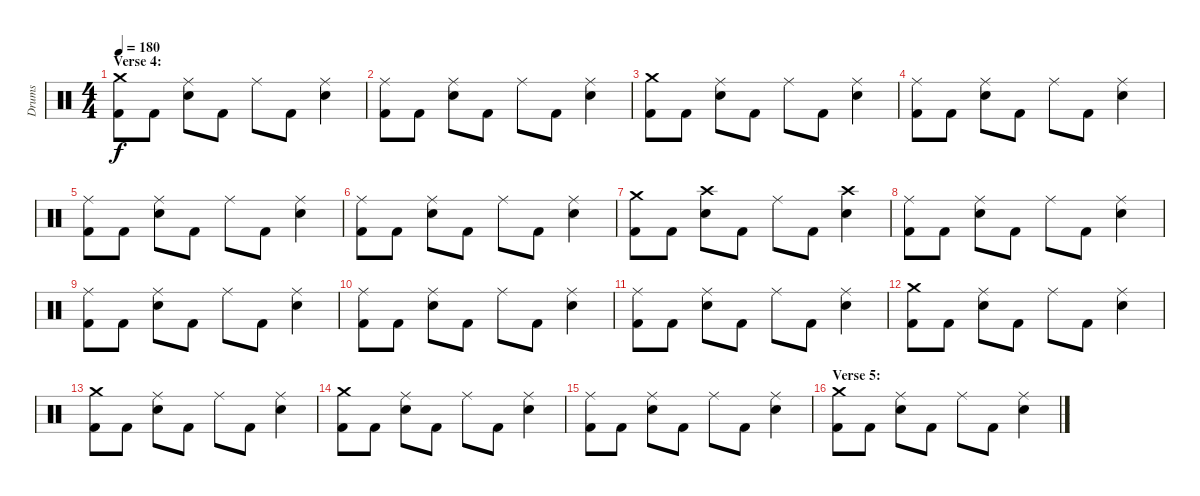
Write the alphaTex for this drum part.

\track ("Drums" "Drums") {instrument percussion}
\staff {score}
\articulation defaults
\ts (4 4)
\section ("" "Verse 4:")
\tempo 180
\clef neutral
\ks c
("Crash medium (hit)" "Kick (hit) 2").8{dy f} "Kick (hit) 2".8 ("Ride (middle)" "Electric Snare (hit)").8 "Kick (hit) 2".8 "Ride (middle)".8 "Kick (hit) 2".8 ("Ride (middle)" "Electric Snare (hit)").4 |
("Ride (middle)" "Kick (hit) 2").8 "Kick (hit) 2".8 ("Ride (middle)" "Electric Snare (hit)").8 "Kick (hit) 2".8 "Ride (middle)".8 "Kick (hit) 2".8 ("Ride (middle)" "Electric Snare (hit)").4 |
("Crash medium (hit)" "Kick (hit) 2").8 "Kick (hit) 2".8 ("Ride (middle)" "Electric Snare (hit)").8 "Kick (hit) 2".8 "Ride (middle)".8 "Kick (hit) 2".8 ("Ride (middle)" "Electric Snare (hit)").4 |
("Ride (middle)" "Kick (hit) 2").8 "Kick (hit) 2".8 ("Ride (middle)" "Electric Snare (hit)").8 "Kick (hit) 2".8 "Ride (middle)".8 "Kick (hit) 2".8 ("Ride (middle)" "Electric Snare (hit)").4 |
("Ride (middle)" "Kick (hit) 2").8 "Kick (hit) 2".8 ("Ride (middle)" "Electric Snare (hit)").8 "Kick (hit) 2".8 "Ride (middle)".8 "Kick (hit) 2".8 ("Ride (middle)" "Electric Snare (hit)").4 |
("Ride (middle)" "Kick (hit) 2").8 "Kick (hit) 2".8 ("Ride (middle)" "Electric Snare (hit)").8 "Kick (hit) 2".8 "Ride (middle)".8 "Kick (hit) 2".8 ("Ride (middle)" "Electric Snare (hit)").4 |
("Crash medium (hit)" "Kick (hit) 2").8 "Kick (hit) 2".8 ("Crash high (hit)" "Electric Snare (hit)").8 "Kick (hit) 2".8 "Ride (middle)".8 "Kick (hit) 2".8 ("Crash high (hit)" "Electric Snare (hit)").4 |
("Ride (middle)" "Kick (hit) 2").8 "Kick (hit) 2".8 ("Ride (middle)" "Electric Snare (hit)").8 "Kick (hit) 2".8 "Ride (middle)".8 "Kick (hit) 2".8 ("Ride (middle)" "Electric Snare (hit)").4 |
("Ride (middle)" "Kick (hit) 2").8 "Kick (hit) 2".8 ("Ride (middle)" "Electric Snare (hit)").8 "Kick (hit) 2".8 "Ride (middle)".8 "Kick (hit) 2".8 ("Ride (middle)" "Electric Snare (hit)").4 |
("Ride (middle)" "Kick (hit) 2").8 "Kick (hit) 2".8 ("Ride (middle)" "Electric Snare (hit)").8 "Kick (hit) 2".8 "Ride (middle)".8 "Kick (hit) 2".8 ("Ride (middle)" "Electric Snare (hit)").4 |
("Ride (middle)" "Kick (hit) 2").8 "Kick (hit) 2".8 ("Ride (middle)" "Electric Snare (hit)").8 "Kick (hit) 2".8 "Ride (middle)".8 "Kick (hit) 2".8 ("Ride (middle)" "Electric Snare (hit)").4 |
("Crash medium (hit)" "Kick (hit) 2").8 "Kick (hit) 2".8 ("Ride (middle)" "Electric Snare (hit)").8 "Kick (hit) 2".8 "Ride (middle)".8 "Kick (hit) 2".8 ("Ride (middle)" "Electric Snare (hit)").4 |
("Crash medium (hit)" "Kick (hit) 2").8 "Kick (hit) 2".8 ("Ride (middle)" "Electric Snare (hit)").8 "Kick (hit) 2".8 "Ride (middle)".8 "Kick (hit) 2".8 ("Ride (middle)" "Electric Snare (hit)").4 |
("Crash medium (hit)" "Kick (hit) 2").8 "Kick (hit) 2".8 ("Ride (middle)" "Electric Snare (hit)").8 "Kick (hit) 2".8 "Ride (middle)".8 "Kick (hit) 2".8 ("Ride (middle)" "Electric Snare (hit)").4 |
("Ride (middle)" "Kick (hit) 2").8 "Kick (hit) 2".8 ("Ride (middle)" "Electric Snare (hit)").8 "Kick (hit) 2".8 "Ride (middle)".8 "Kick (hit) 2".8 ("Ride (middle)" "Electric Snare (hit)").4 |
\section ("" "Verse 5:")
("Crash medium (hit)" "Kick (hit) 2").8 "Kick (hit) 2".8 ("Ride (middle)" "Electric Snare (hit)").8 "Kick (hit) 2".8 "Ride (middle)".8 "Kick (hit) 2".8 ("Ride (middle)" "Electric Snare (hit)").4
